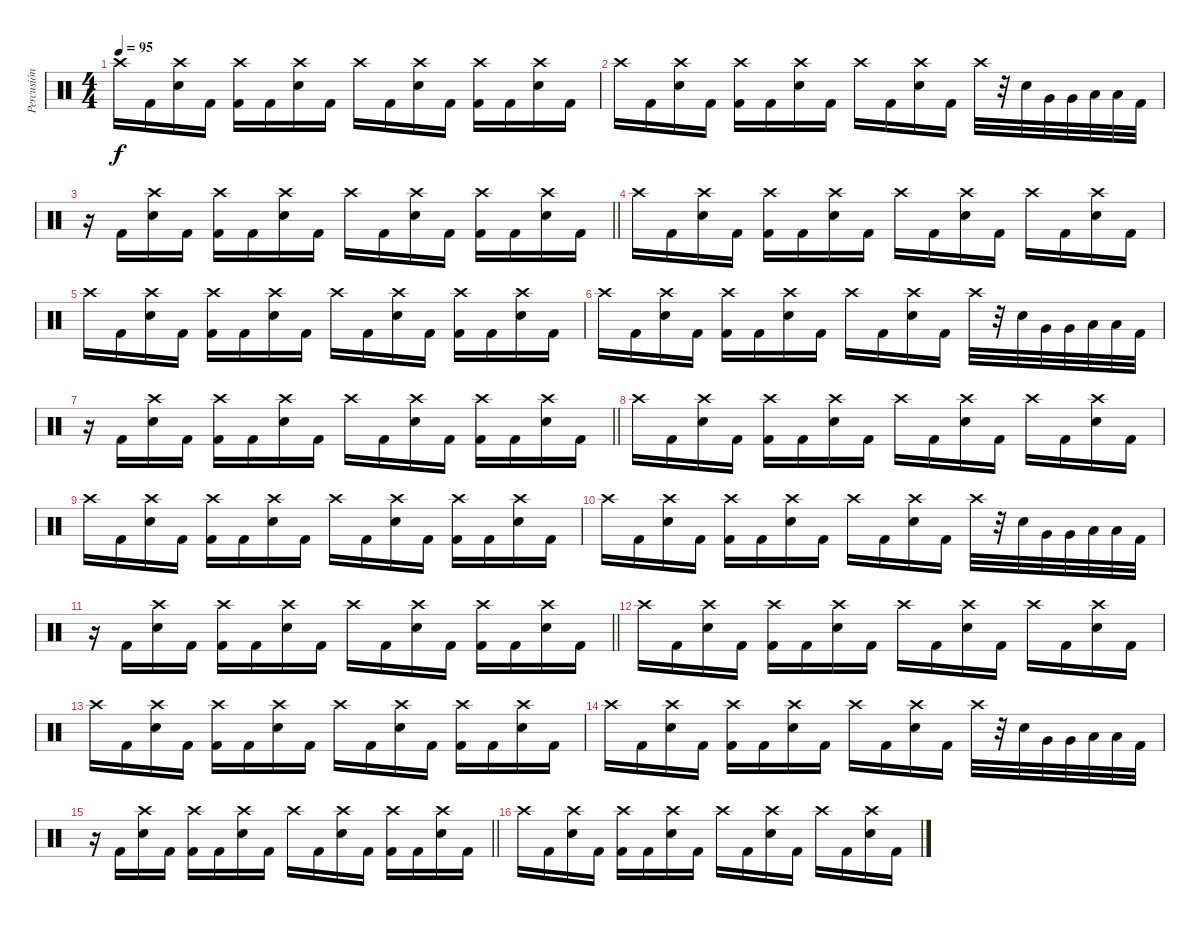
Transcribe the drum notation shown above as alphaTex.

\track ("Percusión" "Percusión") {instrument percussion}
\staff {score}
\articulation defaults
\ts (4 4)
\tempo 95
\clef neutral
\ks c "Crash high (hit)".16{dy f} "Kick (hit) 2".16
("Crash high (hit)" "Electric Snare (hit)").16 "Kick (hit) 2".16 ("Crash high (hit)" "Kick (hit) 2").16 "Kick (hit) 2".16 ("Crash high (hit)" "Electric Snare (hit)").16 "Kick (hit) 2".16 "Crash high (hit)".16 "Kick (hit) 2".16 ("Crash high (hit)" "Electric Snare (hit)").16 "Kick (hit) 2".16 ("Crash high (hit)" "Kick (hit) 2").16 "Kick (hit) 2".16 ("Crash high (hit)" "Electric Snare (hit)").16 "Kick (hit) 2".16 |
"Crash high (hit)".16 "Kick (hit) 2".16 ("Crash high (hit)" "Electric Snare (hit)").16 "Kick (hit) 2".16 ("Crash high (hit)" "Kick (hit) 2").16 "Kick (hit) 2".16 ("Crash high (hit)" "Electric Snare (hit)").16 "Kick (hit) 2".16 "Crash high (hit)".16 "Kick (hit) 2".16 ("Crash high (hit)" "Electric Snare (hit)").16 "Kick (hit) 2".16 "Crash high (hit)".32 r.32 "Electric Snare (hit)".32 "Very Low Tom (hit)".32 "Very Low Tom (hit)".32 "Low Floor Tom (hit)".32 "Low Floor Tom (hit)".32 "Kick (hit) 2".32 |
\barLineRight lightlight
r.16 "Kick (hit) 2".16 ("Crash high (hit)" "Electric Snare (hit)").16 "Kick (hit) 2".16 ("Crash high (hit)" "Kick (hit) 2").16 "Kick (hit) 2".16 ("Crash high (hit)" "Electric Snare (hit)").16 "Kick (hit) 2".16 "Crash high (hit)".16 "Kick (hit) 2".16 ("Crash high (hit)" "Electric Snare (hit)").16 "Kick (hit) 2".16 ("Crash high (hit)" "Kick (hit) 2").16 "Kick (hit) 2".16 ("Crash high (hit)" "Electric Snare (hit)").16 "Kick (hit) 2".16 |
"Crash high (hit)".16 "Kick (hit) 2".16 ("Crash high (hit)" "Electric Snare (hit)").16 "Kick (hit) 2".16 ("Crash high (hit)" "Kick (hit) 2").16 "Kick (hit) 2".16 ("Crash high (hit)" "Electric Snare (hit)").16 "Kick (hit) 2".16 "Crash high (hit)".16 "Kick (hit) 2".16 ("Crash high (hit)" "Electric Snare (hit)").16 "Kick (hit) 2".16 "Crash high (hit)".16 "Kick (hit) 2".16 ("Crash high (hit)" "Electric Snare (hit)").16 "Kick (hit) 2".16 |
"Crash high (hit)".16 "Kick (hit) 2".16 ("Crash high (hit)" "Electric Snare (hit)").16 "Kick (hit) 2".16 ("Crash high (hit)" "Kick (hit) 2").16 "Kick (hit) 2".16 ("Crash high (hit)" "Electric Snare (hit)").16 "Kick (hit) 2".16 "Crash high (hit)".16 "Kick (hit) 2".16 ("Crash high (hit)" "Electric Snare (hit)").16 "Kick (hit) 2".16 ("Crash high (hit)" "Kick (hit) 2").16 "Kick (hit) 2".16 ("Crash high (hit)" "Electric Snare (hit)").16 "Kick (hit) 2".16 |
"Crash high (hit)".16 "Kick (hit) 2".16 ("Crash high (hit)" "Electric Snare (hit)").16 "Kick (hit) 2".16 ("Crash high (hit)" "Kick (hit) 2").16 "Kick (hit) 2".16 ("Crash high (hit)" "Electric Snare (hit)").16 "Kick (hit) 2".16 "Crash high (hit)".16 "Kick (hit) 2".16 ("Crash high (hit)" "Electric Snare (hit)").16 "Kick (hit) 2".16 "Crash high (hit)".32 r.32 "Electric Snare (hit)".32 "Very Low Tom (hit)".32 "Very Low Tom (hit)".32 "Low Floor Tom (hit)".32 "Low Floor Tom (hit)".32 "Kick (hit) 2".32 |
\barLineRight lightlight
r.16 "Kick (hit) 2".16 ("Crash high (hit)" "Electric Snare (hit)").16 "Kick (hit) 2".16 ("Crash high (hit)" "Kick (hit) 2").16 "Kick (hit) 2".16 ("Crash high (hit)" "Electric Snare (hit)").16 "Kick (hit) 2".16 "Crash high (hit)".16 "Kick (hit) 2".16 ("Crash high (hit)" "Electric Snare (hit)").16 "Kick (hit) 2".16 ("Crash high (hit)" "Kick (hit) 2").16 "Kick (hit) 2".16 ("Crash high (hit)" "Electric Snare (hit)").16 "Kick (hit) 2".16 |
"Crash high (hit)".16 "Kick (hit) 2".16 ("Crash high (hit)" "Electric Snare (hit)").16 "Kick (hit) 2".16 ("Crash high (hit)" "Kick (hit) 2").16 "Kick (hit) 2".16 ("Crash high (hit)" "Electric Snare (hit)").16 "Kick (hit) 2".16 "Crash high (hit)".16 "Kick (hit) 2".16 ("Crash high (hit)" "Electric Snare (hit)").16 "Kick (hit) 2".16 "Crash high (hit)".16 "Kick (hit) 2".16 ("Crash high (hit)" "Electric Snare (hit)").16 "Kick (hit) 2".16 |
"Crash high (hit)".16 "Kick (hit) 2".16 ("Crash high (hit)" "Electric Snare (hit)").16 "Kick (hit) 2".16 ("Crash high (hit)" "Kick (hit) 2").16 "Kick (hit) 2".16 ("Crash high (hit)" "Electric Snare (hit)").16 "Kick (hit) 2".16 "Crash high (hit)".16 "Kick (hit) 2".16 ("Crash high (hit)" "Electric Snare (hit)").16 "Kick (hit) 2".16 ("Crash high (hit)" "Kick (hit) 2").16 "Kick (hit) 2".16 ("Crash high (hit)" "Electric Snare (hit)").16 "Kick (hit) 2".16 |
"Crash high (hit)".16 "Kick (hit) 2".16 ("Crash high (hit)" "Electric Snare (hit)").16 "Kick (hit) 2".16 ("Crash high (hit)" "Kick (hit) 2").16 "Kick (hit) 2".16 ("Crash high (hit)" "Electric Snare (hit)").16 "Kick (hit) 2".16 "Crash high (hit)".16 "Kick (hit) 2".16 ("Crash high (hit)" "Electric Snare (hit)").16 "Kick (hit) 2".16 "Crash high (hit)".32 r.32 "Electric Snare (hit)".32 "Very Low Tom (hit)".32 "Very Low Tom (hit)".32 "Low Floor Tom (hit)".32 "Low Floor Tom (hit)".32 "Kick (hit) 2".32 |
\barLineRight lightlight
r.16 "Kick (hit) 2".16 ("Crash high (hit)" "Electric Snare (hit)").16 "Kick (hit) 2".16 ("Crash high (hit)" "Kick (hit) 2").16 "Kick (hit) 2".16 ("Crash high (hit)" "Electric Snare (hit)").16 "Kick (hit) 2".16 "Crash high (hit)".16 "Kick (hit) 2".16 ("Crash high (hit)" "Electric Snare (hit)").16 "Kick (hit) 2".16 ("Crash high (hit)" "Kick (hit) 2").16 "Kick (hit) 2".16 ("Crash high (hit)" "Electric Snare (hit)").16 "Kick (hit) 2".16 |
"Crash high (hit)".16 "Kick (hit) 2".16 ("Crash high (hit)" "Electric Snare (hit)").16 "Kick (hit) 2".16 ("Crash high (hit)" "Kick (hit) 2").16 "Kick (hit) 2".16 ("Crash high (hit)" "Electric Snare (hit)").16 "Kick (hit) 2".16 "Crash high (hit)".16 "Kick (hit) 2".16 ("Crash high (hit)" "Electric Snare (hit)").16 "Kick (hit) 2".16 "Crash high (hit)".16 "Kick (hit) 2".16 ("Crash high (hit)" "Electric Snare (hit)").16 "Kick (hit) 2".16 |
"Crash high (hit)".16 "Kick (hit) 2".16 ("Crash high (hit)" "Electric Snare (hit)").16 "Kick (hit) 2".16 ("Crash high (hit)" "Kick (hit) 2").16 "Kick (hit) 2".16 ("Crash high (hit)" "Electric Snare (hit)").16 "Kick (hit) 2".16 "Crash high (hit)".16 "Kick (hit) 2".16 ("Crash high (hit)" "Electric Snare (hit)").16 "Kick (hit) 2".16 ("Crash high (hit)" "Kick (hit) 2").16 "Kick (hit) 2".16 ("Crash high (hit)" "Electric Snare (hit)").16 "Kick (hit) 2".16 |
"Crash high (hit)".16 "Kick (hit) 2".16 ("Crash high (hit)" "Electric Snare (hit)").16 "Kick (hit) 2".16 ("Crash high (hit)" "Kick (hit) 2").16 "Kick (hit) 2".16 ("Crash high (hit)" "Electric Snare (hit)").16 "Kick (hit) 2".16 "Crash high (hit)".16 "Kick (hit) 2".16 ("Crash high (hit)" "Electric Snare (hit)").16 "Kick (hit) 2".16 "Crash high (hit)".32 r.32 "Electric Snare (hit)".32 "Very Low Tom (hit)".32 "Very Low Tom (hit)".32 "Low Floor Tom (hit)".32 "Low Floor Tom (hit)".32 "Kick (hit) 2".32 |
\barLineRight lightlight
r.16 "Kick (hit) 2".16 ("Crash high (hit)" "Electric Snare (hit)").16 "Kick (hit) 2".16 ("Crash high (hit)" "Kick (hit) 2").16 "Kick (hit) 2".16 ("Crash high (hit)" "Electric Snare (hit)").16 "Kick (hit) 2".16 "Crash high (hit)".16 "Kick (hit) 2".16 ("Crash high (hit)" "Electric Snare (hit)").16 "Kick (hit) 2".16 ("Crash high (hit)" "Kick (hit) 2").16 "Kick (hit) 2".16 ("Crash high (hit)" "Electric Snare (hit)").16 "Kick (hit) 2".16 |
"Crash high (hit)".16 "Kick (hit) 2".16 ("Crash high (hit)" "Electric Snare (hit)").16 "Kick (hit) 2".16 ("Crash high (hit)" "Kick (hit) 2").16 "Kick (hit) 2".16 ("Crash high (hit)" "Electric Snare (hit)").16 "Kick (hit) 2".16 "Crash high (hit)".16 "Kick (hit) 2".16 ("Crash high (hit)" "Electric Snare (hit)").16 "Kick (hit) 2".16 "Crash high (hit)".16 "Kick (hit) 2".16 ("Crash high (hit)" "Electric Snare (hit)").16 "Kick (hit) 2".16
